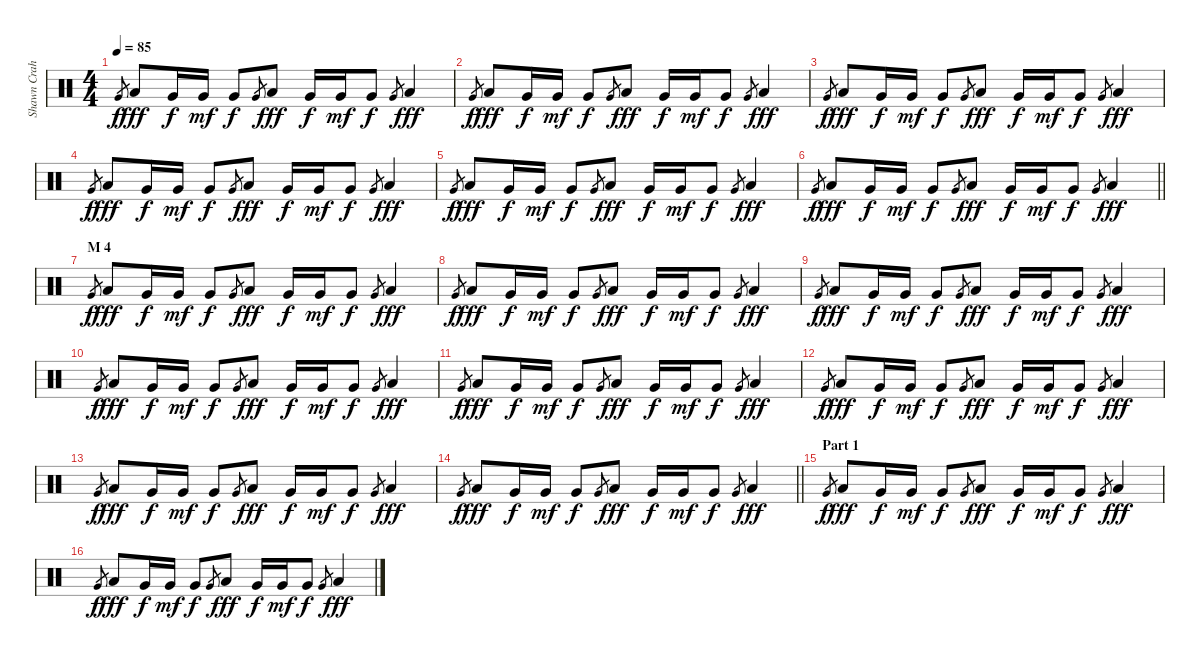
\track ("Shawn Crahan" "Shawn Crah") {instrument percussion}
\staff {score}
\articulation defaults
\ts (4 4)
\tempo 85
\clef neutral
\ks c "Very Low Tom (hit)".8{gr dy f} "Low Tom (hit)".8{dy fff} "Very Low Tom (hit)".16{dy f} "Very Low Tom (hit)".16{dy mf} "Very Low Tom (hit)".8{dy f} "Very Low Tom (hit)".8{gr} "Low Tom (hit)".8{dy fff} "Very Low Tom (hit)".16{dy f} "Very Low Tom (hit)".16{dy mf} "Very Low Tom (hit)".8{dy f} "Very Low Tom (hit)".8{gr} "Low Tom (hit)".4{dy fff}
|
"Very Low Tom (hit)".8{gr dy f} "Low Tom (hit)".8{dy fff} "Very Low Tom (hit)".16{dy f} "Very Low Tom (hit)".16{dy mf} "Very Low Tom (hit)".8{dy f} "Very Low Tom (hit)".8{gr} "Low Tom (hit)".8{dy fff} "Very Low Tom (hit)".16{dy f} "Very Low Tom (hit)".16{dy mf} "Very Low Tom (hit)".8{dy f} "Very Low Tom (hit)".8{gr} "Low Tom (hit)".4{dy fff} |
"Very Low Tom (hit)".8{gr dy f} "Low Tom (hit)".8{dy fff} "Very Low Tom (hit)".16{dy f} "Very Low Tom (hit)".16{dy mf} "Very Low Tom (hit)".8{dy f} "Very Low Tom (hit)".8{gr} "Low Tom (hit)".8{dy fff} "Very Low Tom (hit)".16{dy f} "Very Low Tom (hit)".16{dy mf} "Very Low Tom (hit)".8{dy f} "Very Low Tom (hit)".8{gr} "Low Tom (hit)".4{dy fff} |
"Very Low Tom (hit)".8{gr dy f} "Low Tom (hit)".8{dy fff} "Very Low Tom (hit)".16{dy f} "Very Low Tom (hit)".16{dy mf} "Very Low Tom (hit)".8{dy f} "Very Low Tom (hit)".8{gr} "Low Tom (hit)".8{dy fff} "Very Low Tom (hit)".16{dy f} "Very Low Tom (hit)".16{dy mf} "Very Low Tom (hit)".8{dy f} "Very Low Tom (hit)".8{gr} "Low Tom (hit)".4{dy fff} |
"Very Low Tom (hit)".8{gr dy f} "Low Tom (hit)".8{dy fff} "Very Low Tom (hit)".16{dy f} "Very Low Tom (hit)".16{dy mf} "Very Low Tom (hit)".8{dy f} "Very Low Tom (hit)".8{gr} "Low Tom (hit)".8{dy fff} "Very Low Tom (hit)".16{dy f} "Very Low Tom (hit)".16{dy mf} "Very Low Tom (hit)".8{dy f} "Very Low Tom (hit)".8{gr} "Low Tom (hit)".4{dy fff} |
\barLineRight lightlight "Very Low Tom (hit)".8{gr dy f} "Low Tom (hit)".8{dy fff} "Very Low Tom (hit)".16{dy f} "Very Low Tom (hit)".16{dy mf} "Very Low Tom (hit)".8{dy f} "Very Low Tom (hit)".8{gr} "Low Tom (hit)".8{dy fff} "Very Low Tom (hit)".16{dy f} "Very Low Tom (hit)".16{dy mf} "Very Low Tom (hit)".8{dy f} "Very Low Tom (hit)".8{gr} "Low Tom (hit)".4{dy fff}
|
\section ("" "M 4")
"Very Low Tom (hit)".8{gr dy f} "Low Tom (hit)".8{dy fff} "Very Low Tom (hit)".16{dy f} "Very Low Tom (hit)".16{dy mf} "Very Low Tom (hit)".8{dy f} "Very Low Tom (hit)".8{gr} "Low Tom (hit)".8{dy fff} "Very Low Tom (hit)".16{dy f} "Very Low Tom (hit)".16{dy mf} "Very Low Tom (hit)".8{dy f} "Very Low Tom (hit)".8{gr} "Low Tom (hit)".4{dy fff} |
"Very Low Tom (hit)".8{gr dy f} "Low Tom (hit)".8{dy fff} "Very Low Tom (hit)".16{dy f} "Very Low Tom (hit)".16{dy mf} "Very Low Tom (hit)".8{dy f} "Very Low Tom (hit)".8{gr} "Low Tom (hit)".8{dy fff} "Very Low Tom (hit)".16{dy f} "Very Low Tom (hit)".16{dy mf} "Very Low Tom (hit)".8{dy f} "Very Low Tom (hit)".8{gr} "Low Tom (hit)".4{dy fff} |
"Very Low Tom (hit)".8{gr dy f} "Low Tom (hit)".8{dy fff} "Very Low Tom (hit)".16{dy f} "Very Low Tom (hit)".16{dy mf} "Very Low Tom (hit)".8{dy f} "Very Low Tom (hit)".8{gr} "Low Tom (hit)".8{dy fff} "Very Low Tom (hit)".16{dy f} "Very Low Tom (hit)".16{dy mf} "Very Low Tom (hit)".8{dy f} "Very Low Tom (hit)".8{gr} "Low Tom (hit)".4{dy fff} |
"Very Low Tom (hit)".8{gr dy f} "Low Tom (hit)".8{dy fff} "Very Low Tom (hit)".16{dy f} "Very Low Tom (hit)".16{dy mf} "Very Low Tom (hit)".8{dy f} "Very Low Tom (hit)".8{gr} "Low Tom (hit)".8{dy fff} "Very Low Tom (hit)".16{dy f} "Very Low Tom (hit)".16{dy mf} "Very Low Tom (hit)".8{dy f} "Very Low Tom (hit)".8{gr} "Low Tom (hit)".4{dy fff} |
"Very Low Tom (hit)".8{gr dy f} "Low Tom (hit)".8{dy fff} "Very Low Tom (hit)".16{dy f} "Very Low Tom (hit)".16{dy mf} "Very Low Tom (hit)".8{dy f} "Very Low Tom (hit)".8{gr} "Low Tom (hit)".8{dy fff} "Very Low Tom (hit)".16{dy f} "Very Low Tom (hit)".16{dy mf} "Very Low Tom (hit)".8{dy f} "Very Low Tom (hit)".8{gr} "Low Tom (hit)".4{dy fff} |
"Very Low Tom (hit)".8{gr dy f} "Low Tom (hit)".8{dy fff} "Very Low Tom (hit)".16{dy f} "Very Low Tom (hit)".16{dy mf} "Very Low Tom (hit)".8{dy f} "Very Low Tom (hit)".8{gr} "Low Tom (hit)".8{dy fff} "Very Low Tom (hit)".16{dy f} "Very Low Tom (hit)".16{dy mf} "Very Low Tom (hit)".8{dy f} "Very Low Tom (hit)".8{gr} "Low Tom (hit)".4{dy fff} |
"Very Low Tom (hit)".8{gr dy f} "Low Tom (hit)".8{dy fff} "Very Low Tom (hit)".16{dy f} "Very Low Tom (hit)".16{dy mf} "Very Low Tom (hit)".8{dy f} "Very Low Tom (hit)".8{gr} "Low Tom (hit)".8{dy fff} "Very Low Tom (hit)".16{dy f} "Very Low Tom (hit)".16{dy mf} "Very Low Tom (hit)".8{dy f} "Very Low Tom (hit)".8{gr} "Low Tom (hit)".4{dy fff} |
\barLineRight lightlight "Very Low Tom (hit)".8{gr dy f} "Low Tom (hit)".8{dy fff} "Very Low Tom (hit)".16{dy f} "Very Low Tom (hit)".16{dy mf} "Very Low Tom (hit)".8{dy f} "Very Low Tom (hit)".8{gr} "Low Tom (hit)".8{dy fff} "Very Low Tom (hit)".16{dy f} "Very Low Tom (hit)".16{dy mf} "Very Low Tom (hit)".8{dy f} "Very Low Tom (hit)".8{gr} "Low Tom (hit)".4{dy fff}
|
\section ("" "Part 1")
"Very Low Tom (hit)".8{gr dy f} "Low Tom (hit)".8{dy fff} "Very Low Tom (hit)".16{dy f} "Very Low Tom (hit)".16{dy mf} "Very Low Tom (hit)".8{dy f} "Very Low Tom (hit)".8{gr} "Low Tom (hit)".8{dy fff} "Very Low Tom (hit)".16{dy f} "Very Low Tom (hit)".16{dy mf} "Very Low Tom (hit)".8{dy f} "Very Low Tom (hit)".8{gr} "Low Tom (hit)".4{dy fff} |
"Very Low Tom (hit)".8{gr dy f} "Low Tom (hit)".8{dy fff} "Very Low Tom (hit)".16{dy f} "Very Low Tom (hit)".16{dy mf} "Very Low Tom (hit)".8{dy f} "Very Low Tom (hit)".8{gr} "Low Tom (hit)".8{dy fff} "Very Low Tom (hit)".16{dy f} "Very Low Tom (hit)".16{dy mf} "Very Low Tom (hit)".8{dy f} "Very Low Tom (hit)".8{gr} "Low Tom (hit)".4{dy fff}
